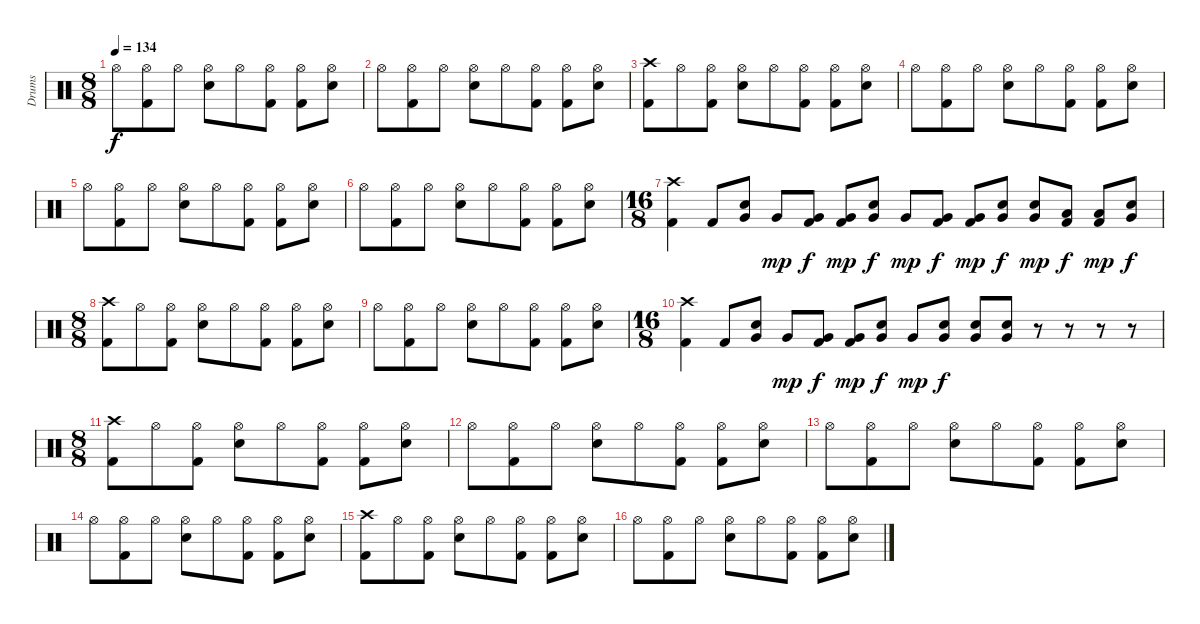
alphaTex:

\track ("Drums" "Drums") {instrument percussion}
\staff {score}
\articulation defaults
\ts (8 8)
\tempo 134
\clef neutral
\ks c "Hi-Hat (open)".8{dy f}
("Hi-Hat (open)" "Kick (hit) 2").8 "Hi-Hat (open)".8 ("Hi-Hat (open)" "Snare (hit) 2").8 "Hi-Hat (open)".8 ("Hi-Hat (open)" "Kick (hit) 2").8 ("Hi-Hat (open)" "Kick (hit) 2").8 ("Hi-Hat (open)" "Snare (hit) 2").8 |
"Hi-Hat (open)".8 ("Hi-Hat (open)" "Kick (hit) 2").8 "Hi-Hat (open)".8 ("Hi-Hat (open)" "Snare (hit) 2").8 "Hi-Hat (open)".8 ("Hi-Hat (open)" "Kick (hit) 2").8 ("Hi-Hat (open)" "Kick (hit) 2").8 ("Hi-Hat (open)" "Snare (hit) 2").8 |
("Crash high (hit)" "Kick (hit) 2").8 "Hi-Hat (open)".8 ("Hi-Hat (open)" "Kick (hit) 2").8 ("Hi-Hat (open)" "Snare (hit) 2").8 "Hi-Hat (open)".8 ("Hi-Hat (open)" "Kick (hit) 2").8 ("Hi-Hat (open)" "Kick (hit) 2").8 ("Hi-Hat (open)" "Snare (hit) 2").8 |
"Hi-Hat (open)".8 ("Hi-Hat (open)" "Kick (hit) 2").8 "Hi-Hat (open)".8 ("Hi-Hat (open)" "Snare (hit) 2").8 "Hi-Hat (open)".8 ("Hi-Hat (open)" "Kick (hit) 2").8 ("Hi-Hat (open)" "Kick (hit) 2").8 ("Hi-Hat (open)" "Snare (hit) 2").8 |
"Hi-Hat (open)".8 ("Hi-Hat (open)" "Kick (hit) 2").8 "Hi-Hat (open)".8 ("Hi-Hat (open)" "Snare (hit) 2").8 "Hi-Hat (open)".8 ("Hi-Hat (open)" "Kick (hit) 2").8 ("Hi-Hat (open)" "Kick (hit) 2").8 ("Hi-Hat (open)" "Snare (hit) 2").8 |
"Hi-Hat (open)".8 ("Hi-Hat (open)" "Kick (hit) 2").8 "Hi-Hat (open)".8 ("Hi-Hat (open)" "Snare (hit) 2").8 "Hi-Hat (open)".8 ("Hi-Hat (open)" "Kick (hit) 2").8 ("Hi-Hat (open)" "Kick (hit) 2").8 ("Hi-Hat (open)" "Snare (hit) 2").8 |
\ts (16 8)
("Crash high (hit)" "Kick (hit) 2").4 "Kick (hit) 2".8 ("Very Low Tom (hit)" "Snare (hit) 2").8 "Very Low Tom (hit)".8{dy mp} ("Very Low Tom (hit)" "Kick (hit) 2").8{dy f} ("Very Low Tom (hit)" "Kick (hit) 2").8{dy mp} ("Very Low Tom (hit)" "Snare (hit) 2").8{dy f} "Very Low Tom (hit)".8{dy mp} ("Very Low Tom (hit)" "Kick (hit) 2").8{dy f} ("Very Low Tom (hit)" "Kick (hit) 2").8{dy mp} ("Very Low Tom (hit)" "Snare (hit) 2").8{dy f} ("Very Low Tom (hit)" "Snare (hit) 2").8{dy mp} ("Low Tom (hit)" "Kick (hit) 2").8{dy f} ("Low Tom (hit)" "Kick (hit) 2").8{dy mp} ("Very Low Tom (hit)" "Snare (hit) 2").8{dy f} |
\ts (8 8)
("Crash high (hit)" "Kick (hit) 2").8 "Hi-Hat (open)".8 ("Hi-Hat (open)" "Kick (hit) 2").8 ("Hi-Hat (open)" "Snare (hit) 2").8 "Hi-Hat (open)".8 ("Hi-Hat (open)" "Kick (hit) 2").8 ("Hi-Hat (open)" "Kick (hit) 2").8 ("Hi-Hat (open)" "Snare (hit) 2").8 |
"Hi-Hat (open)".8 ("Hi-Hat (open)" "Kick (hit) 2").8 "Hi-Hat (open)".8 ("Hi-Hat (open)" "Snare (hit) 2").8 "Hi-Hat (open)".8 ("Hi-Hat (open)" "Kick (hit) 2").8 ("Hi-Hat (open)" "Kick (hit) 2").8 ("Hi-Hat (open)" "Snare (hit) 2").8 |
\ts (16 8)
("Crash high (hit)" "Kick (hit) 2").4 "Kick (hit) 2".8 ("Very Low Tom (hit)" "Snare (hit) 2").8 "Very Low Tom (hit)".8{dy mp} ("Very Low Tom (hit)" "Kick (hit) 2").8{dy f} ("Very Low Tom (hit)" "Kick (hit) 2").8{dy mp} ("Very Low Tom (hit)" "Snare (hit) 2").8{dy f} "Very Low Tom (hit)".8{dy mp} ("Very Low Tom (hit)" "Snare (hit) 2").8{dy f} ("Very Low Tom (hit)" "Snare (hit) 2").8 ("Very Low Tom (hit)" "Snare (hit) 2").8 r.8 r.8 r.8 r.8 |
\ts (8 8)
("Crash high (hit)" "Kick (hit) 2").8 "Hi-Hat (open)".8 ("Hi-Hat (open)" "Kick (hit) 2").8 ("Hi-Hat (open)" "Snare (hit) 2").8 "Hi-Hat (open)".8 ("Hi-Hat (open)" "Kick (hit) 2").8 ("Hi-Hat (open)" "Kick (hit) 2").8 ("Hi-Hat (open)" "Snare (hit) 2").8 |
"Hi-Hat (open)".8 ("Hi-Hat (open)" "Kick (hit) 2").8 "Hi-Hat (open)".8 ("Hi-Hat (open)" "Snare (hit) 2").8 "Hi-Hat (open)".8 ("Hi-Hat (open)" "Kick (hit) 2").8 ("Hi-Hat (open)" "Kick (hit) 2").8 ("Hi-Hat (open)" "Snare (hit) 2").8 |
"Hi-Hat (open)".8 ("Hi-Hat (open)" "Kick (hit) 2").8 "Hi-Hat (open)".8 ("Hi-Hat (open)" "Snare (hit) 2").8 "Hi-Hat (open)".8 ("Hi-Hat (open)" "Kick (hit) 2").8 ("Hi-Hat (open)" "Kick (hit) 2").8 ("Hi-Hat (open)" "Snare (hit) 2").8 |
"Hi-Hat (open)".8 ("Hi-Hat (open)" "Kick (hit) 2").8 "Hi-Hat (open)".8 ("Hi-Hat (open)" "Snare (hit) 2").8 "Hi-Hat (open)".8 ("Hi-Hat (open)" "Kick (hit) 2").8 ("Hi-Hat (open)" "Kick (hit) 2").8 ("Hi-Hat (open)" "Snare (hit) 2").8 |
("Crash high (hit)" "Kick (hit) 2").8 "Hi-Hat (open)".8 ("Hi-Hat (open)" "Kick (hit) 2").8 ("Hi-Hat (open)" "Snare (hit) 2").8 "Hi-Hat (open)".8 ("Hi-Hat (open)" "Kick (hit) 2").8 ("Hi-Hat (open)" "Kick (hit) 2").8 ("Hi-Hat (open)" "Snare (hit) 2").8 |
"Hi-Hat (open)".8 ("Hi-Hat (open)" "Kick (hit) 2").8 "Hi-Hat (open)".8 ("Hi-Hat (open)" "Snare (hit) 2").8 "Hi-Hat (open)".8 ("Hi-Hat (open)" "Kick (hit) 2").8 ("Hi-Hat (open)" "Kick (hit) 2").8 ("Hi-Hat (open)" "Snare (hit) 2").8
